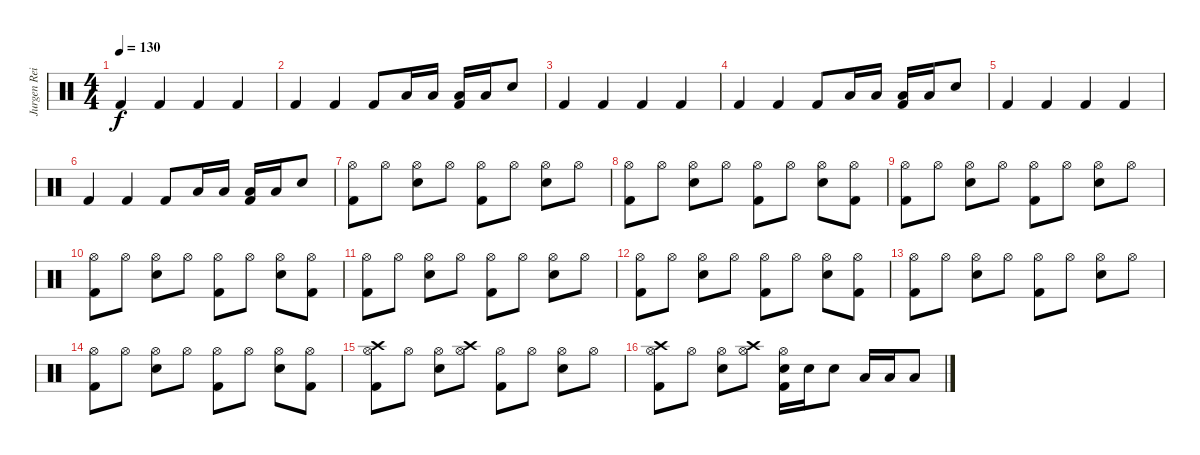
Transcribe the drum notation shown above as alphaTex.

\track ("Jurgen Reil" "Jurgen Rei") {instrument percussion}
\staff {score}
\articulation defaults
\ts (4 4)
\tempo 130
\clef neutral
\ks c "Kick (hit) 2".4{dy f} "Kick (hit) 2".4 "Kick (hit) 2".4 "Kick (hit) 2".4
|
"Kick (hit) 2".4 "Kick (hit) 2".4 "Kick (hit) 2".8 "Low Floor Tom (hit)".16 "Low Floor Tom (hit)".16 ("Kick (hit) 2" "Low Tom (hit)").16 "Low Tom (hit)".16 "Snare (hit) 2".8 |
"Kick (hit) 2".4 "Kick (hit) 2".4 "Kick (hit) 2".4 "Kick (hit) 2".4 |
"Kick (hit) 2".4 "Kick (hit) 2".4 "Kick (hit) 2".8 "Low Floor Tom (hit)".16 "Low Floor Tom (hit)".16 ("Kick (hit) 2" "Low Tom (hit)").16 "Low Tom (hit)".16 "Snare (hit) 2".8 |
"Kick (hit) 2".4 "Kick (hit) 2".4 "Kick (hit) 2".4 "Kick (hit) 2".4 |
"Kick (hit) 2".4 "Kick (hit) 2".4 "Kick (hit) 2".8 "Low Floor Tom (hit)".16 "Low Floor Tom (hit)".16 ("Kick (hit) 2" "Low Tom (hit)").16 "Low Tom (hit)".16 "Snare (hit) 2".8 |
("Kick (hit) 2" "Hi-Hat (open)").8 "Hi-Hat (open)".8 ("Snare (hit) 2" "Hi-Hat (open)").8 "Hi-Hat (open)".8 ("Kick (hit) 2" "Hi-Hat (open)").8 "Hi-Hat (open)".8 ("Snare (hit) 2" "Hi-Hat (open)").8 "Hi-Hat (open)".8 |
("Kick (hit) 2" "Hi-Hat (open)").8 "Hi-Hat (open)".8 ("Snare (hit) 2" "Hi-Hat (open)").8 "Hi-Hat (open)".8 ("Kick (hit) 2" "Hi-Hat (open)").8 "Hi-Hat (open)".8 ("Snare (hit) 2" "Hi-Hat (open)").8 ("Kick (hit) 2" "Hi-Hat (open)").8 |
("Kick (hit) 2" "Hi-Hat (open)").8 "Hi-Hat (open)".8 ("Snare (hit) 2" "Hi-Hat (open)").8 "Hi-Hat (open)".8 ("Kick (hit) 2" "Hi-Hat (open)").8 "Hi-Hat (open)".8 ("Snare (hit) 2" "Hi-Hat (open)").8 "Hi-Hat (open)".8 |
("Kick (hit) 2" "Hi-Hat (open)").8 "Hi-Hat (open)".8 ("Snare (hit) 2" "Hi-Hat (open)").8 "Hi-Hat (open)".8 ("Kick (hit) 2" "Hi-Hat (open)").8 "Hi-Hat (open)".8 ("Snare (hit) 2" "Hi-Hat (open)").8 ("Kick (hit) 2" "Hi-Hat (open)").8 |
("Kick (hit) 2" "Hi-Hat (open)").8 "Hi-Hat (open)".8 ("Snare (hit) 2" "Hi-Hat (open)").8 "Hi-Hat (open)".8 ("Kick (hit) 2" "Hi-Hat (open)").8 "Hi-Hat (open)".8 ("Snare (hit) 2" "Hi-Hat (open)").8 "Hi-Hat (open)".8 |
("Kick (hit) 2" "Hi-Hat (open)").8 "Hi-Hat (open)".8 ("Snare (hit) 2" "Hi-Hat (open)").8 "Hi-Hat (open)".8 ("Kick (hit) 2" "Hi-Hat (open)").8 "Hi-Hat (open)".8 ("Snare (hit) 2" "Hi-Hat (open)").8 ("Kick (hit) 2" "Hi-Hat (open)").8 |
("Kick (hit) 2" "Hi-Hat (open)").8 "Hi-Hat (open)".8 ("Snare (hit) 2" "Hi-Hat (open)").8 "Hi-Hat (open)".8 ("Kick (hit) 2" "Hi-Hat (open)").8 "Hi-Hat (open)".8 ("Snare (hit) 2" "Hi-Hat (open)").8 "Hi-Hat (open)".8 |
("Kick (hit) 2" "Hi-Hat (open)").8 "Hi-Hat (open)".8 ("Snare (hit) 2" "Hi-Hat (open)").8 "Hi-Hat (open)".8 ("Kick (hit) 2" "Hi-Hat (open)").8 "Hi-Hat (open)".8 ("Snare (hit) 2" "Hi-Hat (open)").8 ("Kick (hit) 2" "Hi-Hat (open)").8 |
("Kick (hit) 2" "Crash high (hit)" "Hi-Hat (open)").8 "Hi-Hat (open)".8 ("Snare (hit) 2" "Hi-Hat (open)").8 ("Crash high (hit)" "Hi-Hat (open)").8 ("Kick (hit) 2" "Hi-Hat (open)").8 "Hi-Hat (open)".8 ("Snare (hit) 2" "Hi-Hat (open)").8 "Hi-Hat (open)".8 |
("Kick (hit) 2" "Crash high (hit)" "Hi-Hat (open)").8 "Hi-Hat (open)".8 ("Snare (hit) 2" "Hi-Hat (open)").8 ("Crash high (hit)" "Hi-Hat (open)").8 ("Kick (hit) 2" "Snare (hit) 2" "Hi-Hat (open)").16 "Snare (hit) 2".16 "Snare (hit) 2".8 "Low Tom (hit)".16 "Low Tom (hit)".16 "Low Tom (hit)".8
